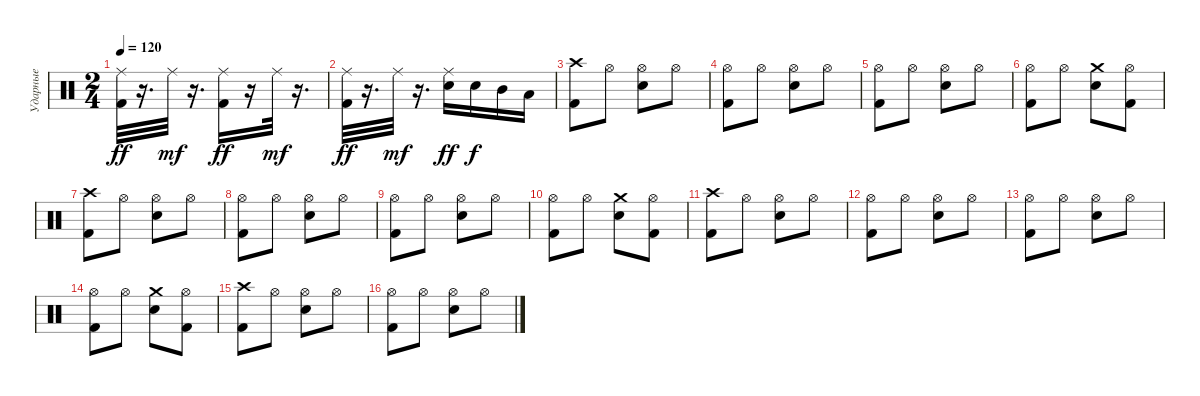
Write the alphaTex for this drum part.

\track ("Ударные" "Ударные") {instrument percussion}
\staff {score}
\articulation defaults
\ts (2 4)
\tempo 120
\clef neutral
\ks c
("Ride (middle)" "Kick (hit) 2").32{dy ff} r.16{d} "Ride (middle)".32{dy mf} r.16{d} ("Ride (middle)" "Kick (hit) 2").16{dy ff} r.16 "Ride (middle)".32{dy mf} r.16{d} |
("Ride (middle)" "Kick (hit) 2").32{dy ff} r.16{d} "Ride (middle)".32{dy mf} r.16{d} ("Ride (middle)" "Electric Snare (hit)").16{dy ff} "Electric Snare (hit)".16{dy f} "Mid Tom (hit)".16 "Low Tom (hit)".16 |
("Crash high (hit)" "Kick (hit) 2").8 "Hi-Hat (open)".8 ("Hi-Hat (open)" "Electric Snare (hit)").8 "Hi-Hat (open)".8 |
("Hi-Hat (open)" "Kick (hit) 2").8 "Hi-Hat (open)".8 ("Hi-Hat (open)" "Electric Snare (hit)").8 "Hi-Hat (open)".8 |
("Hi-Hat (open)" "Kick (hit) 2").8 "Hi-Hat (open)".8 ("Hi-Hat (open)" "Electric Snare (hit)").8 "Hi-Hat (open)".8 |
("Hi-Hat (open)" "Kick (hit) 2").8 "Hi-Hat (open)".8 ("Crash medium (hit)" "Electric Snare (hit)").8 ("Hi-Hat (open)" "Kick (hit) 2").8 |
("Crash high (hit)" "Kick (hit) 2").8 "Hi-Hat (open)".8 ("Hi-Hat (open)" "Electric Snare (hit)").8 "Hi-Hat (open)".8 |
("Hi-Hat (open)" "Kick (hit) 2").8 "Hi-Hat (open)".8 ("Hi-Hat (open)" "Electric Snare (hit)").8 "Hi-Hat (open)".8 |
("Hi-Hat (open)" "Kick (hit) 2").8 "Hi-Hat (open)".8 ("Hi-Hat (open)" "Electric Snare (hit)").8 "Hi-Hat (open)".8 |
("Hi-Hat (open)" "Kick (hit) 2").8 "Hi-Hat (open)".8 ("Crash medium (hit)" "Electric Snare (hit)").8 ("Hi-Hat (open)" "Kick (hit) 2").8 |
("Crash high (hit)" "Kick (hit) 2").8 "Hi-Hat (open)".8 ("Hi-Hat (open)" "Electric Snare (hit)").8 "Hi-Hat (open)".8 |
("Hi-Hat (open)" "Kick (hit) 2").8 "Hi-Hat (open)".8 ("Hi-Hat (open)" "Electric Snare (hit)").8 "Hi-Hat (open)".8 |
("Hi-Hat (open)" "Kick (hit) 2").8 "Hi-Hat (open)".8 ("Hi-Hat (open)" "Electric Snare (hit)").8 "Hi-Hat (open)".8 |
("Hi-Hat (open)" "Kick (hit) 2").8 "Hi-Hat (open)".8 ("Crash medium (hit)" "Electric Snare (hit)").8 ("Hi-Hat (open)" "Kick (hit) 2").8 |
("Crash high (hit)" "Kick (hit) 2").8 "Hi-Hat (open)".8 ("Hi-Hat (open)" "Electric Snare (hit)").8 "Hi-Hat (open)".8 |
("Hi-Hat (open)" "Kick (hit) 2").8 "Hi-Hat (open)".8 ("Hi-Hat (open)" "Electric Snare (hit)").8 "Hi-Hat (open)".8
